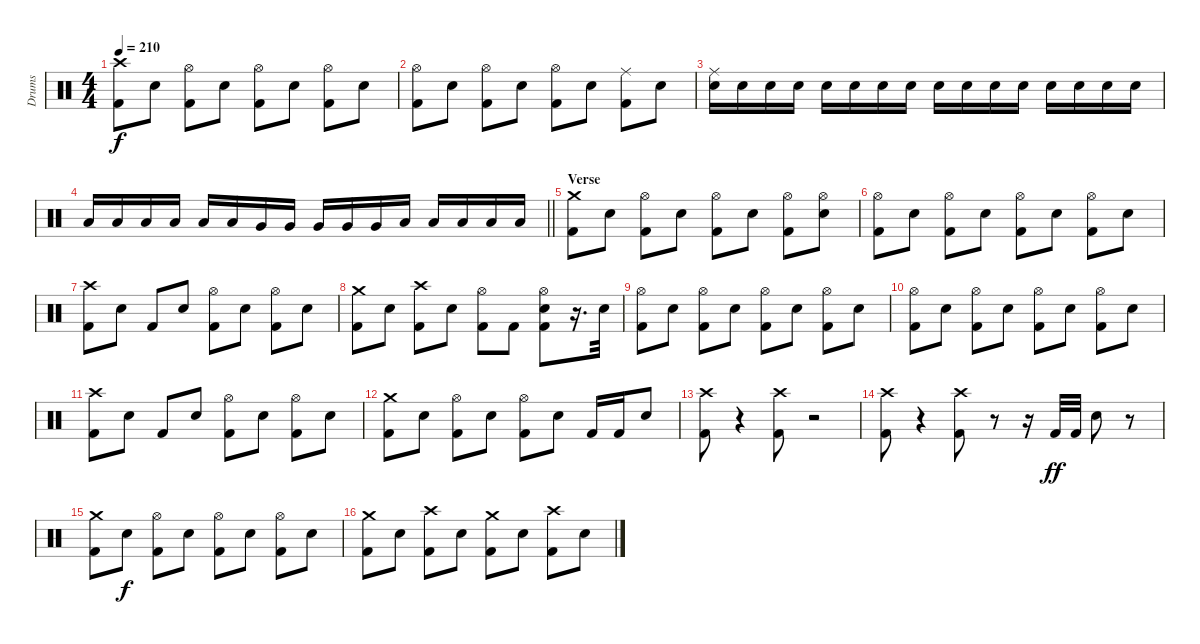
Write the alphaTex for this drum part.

\track ("Drums" "Drums") {instrument percussion}
\staff {score}
\articulation defaults
\ts (4 4)
\tempo 210
\clef neutral
\ks c
("Crash high (hit)" "Kick (hit) 2").8{dy f} "Snare (hit) 2".8 ("Hi-Hat (open)" "Kick (hit) 2").8 "Snare (hit) 2".8 ("Hi-Hat (open)" "Kick (hit) 2").8 "Snare (hit) 2".8 ("Hi-Hat (open)" "Kick (hit) 2").8 "Snare (hit) 2".8 |
("Hi-Hat (open)" "Kick (hit) 2").8 "Snare (hit) 2".8 ("Hi-Hat (open)" "Kick (hit) 2").8 "Snare (hit) 2".8 ("Hi-Hat (open)" "Kick (hit) 2").8 "Snare (hit) 2".8 ("Ride (middle)" "Kick (hit) 2").8 "Snare (hit) 2".8 |
("Ride (middle)" "Snare (hit) 2").16 "Snare (hit) 2".16 "Snare (hit) 2".16 "Snare (hit) 2".16 "Snare (hit) 2".16 "Snare (hit) 2".16 "Snare (hit) 2".16 "Snare (hit) 2".16 "Snare (hit) 2".16 "Snare (hit) 2".16 "Snare (hit) 2".16 "Snare (hit) 2".16 "Snare (hit) 2".16 "Snare (hit) 2".16 "Snare (hit) 2".16 "Snare (hit) 2".16 |
\barLineRight lightlight "Low Tom (hit)".16 "Low Tom (hit)".16 "Low Tom (hit)".16 "Low Tom (hit)".16 "Low Tom (hit)".16 "Low Tom (hit)".16 "Very Low Tom (hit)".16 "Very Low Tom (hit)".16 "Very Low Tom (hit)".16 "Very Low Tom (hit)".16 "Very Low Tom (hit)".16 "Low Floor Tom (hit)".16 "Low Floor Tom (hit)".16 "Low Floor Tom (hit)".16 "Low Floor Tom (hit)".16 "Low Floor Tom (hit)".16
|
\section ("" "Verse")
("Crash medium (hit)" "Kick (hit) 2").8 "Snare (hit) 2".8 ("Hi-Hat (open)" "Kick (hit) 2").8 "Snare (hit) 2".8 ("Hi-Hat (open)" "Kick (hit) 2").8 "Snare (hit) 2".8 ("Hi-Hat (open)" "Kick (hit) 2").8 ("Hi-Hat (open)" "Snare (hit) 2").8 |
("Hi-Hat (open)" "Kick (hit) 2").8 "Snare (hit) 2".8 ("Hi-Hat (open)" "Kick (hit) 2").8 "Snare (hit) 2".8 ("Hi-Hat (open)" "Kick (hit) 2").8 "Snare (hit) 2".8 ("Hi-Hat (open)" "Kick (hit) 2").8 "Snare (hit) 2".8 |
("Crash high (hit)" "Kick (hit) 2").8 "Snare (hit) 2".8 "Kick (hit) 2".8 "Snare (hit) 2".8 ("Hi-Hat (open)" "Kick (hit) 2").8 "Snare (hit) 2".8 ("Hi-Hat (open)" "Kick (hit) 2").8 "Snare (hit) 2".8 |
("Crash medium (hit)" "Kick (hit) 2").8 "Snare (hit) 2".8 ("Crash high (hit)" "Kick (hit) 2").8 "Snare (hit) 2".8 ("Hi-Hat (open)" "Kick (hit) 2").8 "Kick (hit) 2".8 ("Hi-Hat (open)" "Snare (hit) 2" "Kick (hit) 2").8 r.16{d} "Snare (hit) 2".32 |
("Hi-Hat (open)" "Kick (hit) 2").8 "Snare (hit) 2".8 ("Hi-Hat (open)" "Kick (hit) 2").8 "Snare (hit) 2".8 ("Hi-Hat (open)" "Kick (hit) 2").8 "Snare (hit) 2".8 ("Hi-Hat (open)" "Kick (hit) 2").8 "Snare (hit) 2".8 |
("Hi-Hat (open)" "Kick (hit) 2").8 "Snare (hit) 2".8 ("Hi-Hat (open)" "Kick (hit) 2").8 "Snare (hit) 2".8 ("Hi-Hat (open)" "Kick (hit) 2").8 "Snare (hit) 2".8 ("Hi-Hat (open)" "Kick (hit) 2").8 "Snare (hit) 2".8 |
("Crash high (hit)" "Kick (hit) 2").8 "Snare (hit) 2".8 "Kick (hit) 2".8 "Snare (hit) 2".8 ("Hi-Hat (open)" "Kick (hit) 2").8 "Snare (hit) 2".8 ("Hi-Hat (open)" "Kick (hit) 2").8 "Snare (hit) 2".8 |
("Crash medium (hit)" "Kick (hit) 2").8 "Snare (hit) 2".8 ("Hi-Hat (open)" "Kick (hit) 2").8 "Snare (hit) 2".8 ("Hi-Hat (open)" "Kick (hit) 2").8 "Snare (hit) 2".8 "Kick (hit) 2".16 "Kick (hit) 2".16 "Snare (hit) 2".8 |
("Crash high (hit)" "Kick (hit) 2").8 r.4 ("Crash high (hit)" "Kick (hit) 2").8 r.2 |
("Crash high (hit)" "Kick (hit) 2").8 r.4 ("Crash high (hit)" "Kick (hit) 2").8 r.8 r.16 "Kick (hit) 2".32{dy ff} "Kick (hit) 2".32 "Snare (hit) 2".8 r.8 |
("Crash medium (hit)" "Kick (hit) 2").8 "Snare (hit) 2".8{dy f} ("Hi-Hat (open)" "Kick (hit) 2").8 "Snare (hit) 2".8 ("Hi-Hat (open)" "Kick (hit) 2").8 "Snare (hit) 2".8 ("Hi-Hat (open)" "Kick (hit) 2").8 "Snare (hit) 2".8 |
("Crash medium (hit)" "Kick (hit) 2").8 "Snare (hit) 2".8 ("Crash high (hit)" "Kick (hit) 2").8 "Snare (hit) 2".8 ("Crash medium (hit)" "Kick (hit) 2").8 "Snare (hit) 2".8 ("Crash high (hit)" "Kick (hit) 2").8 "Snare (hit) 2".8
